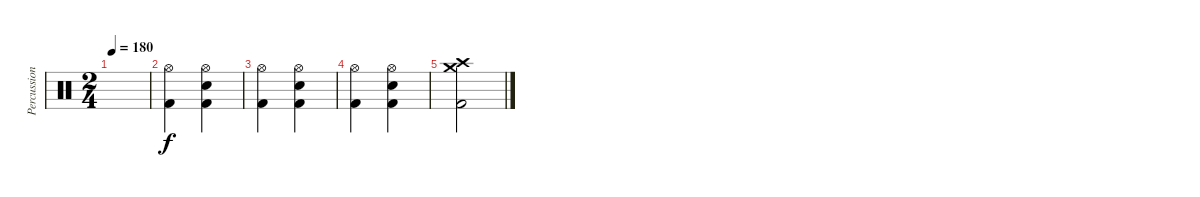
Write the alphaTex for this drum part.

\track ("Percussion" "Percussion") {instrument percussion}
\staff {score}
\articulation defaults
\ts (2 4)
\tempo 180
\clef neutral
\ks c
|
("Hi-Hat (open)" "Kick (hit) 2").4 ("Hi-Hat (open)" "Snare (hit) 2" "Kick (hit) 2").4 |
("Hi-Hat (open)" "Kick (hit) 2").4 ("Hi-Hat (open)" "Snare (hit) 2" "Kick (hit) 2").4 |
("Hi-Hat (open)" "Kick (hit) 2").4 ("Hi-Hat (open)" "Snare (hit) 2" "Kick (hit) 2").4 |
("Crash medium (hit)" "Crash high (hit)" "Kick (hit) 2").2
